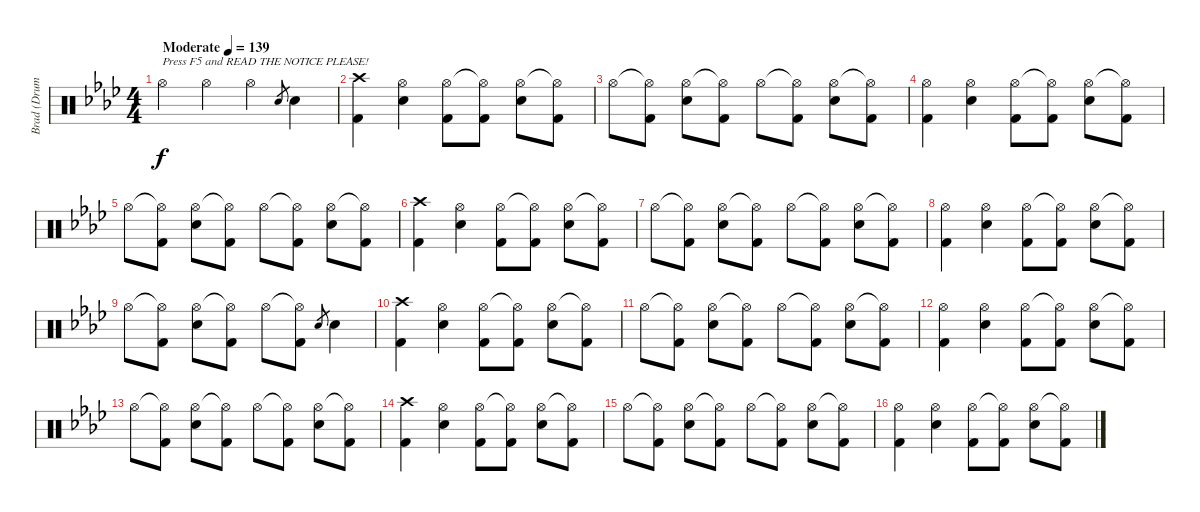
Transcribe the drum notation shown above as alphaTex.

\track ("Brad (Drums)" "Brad (Drum") {instrument percussion}
\staff {score}
\articulation defaults
\ts (4 4)
\tempo (139 "Moderate")
\clef neutral
\ks ab "Hi-Hat (open)".4{txt "Press F5 and READ THE NOTICE PLEASE!" dy f} "Hi-Hat (open)".4 "Hi-Hat (open)".4 "Snare (hit) 2".8{gr} "Snare (hit) 2".4
|
("Crash high (hit)" "Kick (hit) 2").4 ("Hi-Hat (open)" "Snare (hit) 2").4 ("Hi-Hat (open)" "Kick (hit) 2").8 ("Hi-Hat (open)"{t} "Kick (hit) 2").8 ("Hi-Hat (open)" "Snare (hit) 2").8 ("Hi-Hat (open)"{t} "Kick (hit) 2").8 |
"Hi-Hat (open)".8 ("Hi-Hat (open)"{t} "Kick (hit) 2").8 ("Hi-Hat (open)" "Snare (hit) 2").8 ("Hi-Hat (open)"{t} "Kick (hit) 2").8 "Hi-Hat (open)".8 ("Hi-Hat (open)"{t} "Kick (hit) 2").8 ("Hi-Hat (open)" "Snare (hit) 2").8 ("Hi-Hat (open)"{t} "Kick (hit) 2").8 |
("Hi-Hat (open)" "Kick (hit) 2").4 ("Hi-Hat (open)" "Snare (hit) 2").4 ("Hi-Hat (open)" "Kick (hit) 2").8 ("Hi-Hat (open)"{t} "Kick (hit) 2").8 ("Hi-Hat (open)" "Snare (hit) 2").8 ("Hi-Hat (open)"{t} "Kick (hit) 2").8 |
"Hi-Hat (open)".8 ("Hi-Hat (open)"{t} "Kick (hit) 2").8 ("Hi-Hat (open)" "Snare (hit) 2").8 ("Hi-Hat (open)"{t} "Kick (hit) 2").8 "Hi-Hat (open)".8 ("Hi-Hat (open)"{t} "Kick (hit) 2").8 ("Hi-Hat (open)" "Snare (hit) 2").8 ("Hi-Hat (open)"{t} "Kick (hit) 2").8 |
("Crash high (hit)" "Kick (hit) 2").4 ("Hi-Hat (open)" "Snare (hit) 2").4 ("Hi-Hat (open)" "Kick (hit) 2").8 ("Hi-Hat (open)"{t} "Kick (hit) 2").8 ("Hi-Hat (open)" "Snare (hit) 2").8 ("Hi-Hat (open)"{t} "Kick (hit) 2").8 |
"Hi-Hat (open)".8 ("Hi-Hat (open)"{t} "Kick (hit) 2").8 ("Hi-Hat (open)" "Snare (hit) 2").8 ("Hi-Hat (open)"{t} "Kick (hit) 2").8 "Hi-Hat (open)".8 ("Hi-Hat (open)"{t} "Kick (hit) 2").8 ("Hi-Hat (open)" "Snare (hit) 2").8 ("Hi-Hat (open)"{t} "Kick (hit) 2").8 |
("Hi-Hat (open)" "Kick (hit) 2").4 ("Hi-Hat (open)" "Snare (hit) 2").4 ("Hi-Hat (open)" "Kick (hit) 2").8 ("Hi-Hat (open)"{t} "Kick (hit) 2").8 ("Hi-Hat (open)" "Snare (hit) 2").8 ("Hi-Hat (open)"{t} "Kick (hit) 2").8 |
"Hi-Hat (open)".8 ("Hi-Hat (open)"{t} "Kick (hit) 2").8 ("Hi-Hat (open)" "Snare (hit) 2").8 ("Hi-Hat (open)"{t} "Kick (hit) 2").8 "Hi-Hat (open)".8 ("Hi-Hat (open)"{t} "Kick (hit) 2").8 "Snare (hit) 2".8{gr} "Snare (hit) 2".4 |
("Crash high (hit)" "Kick (hit) 2").4 ("Hi-Hat (open)" "Snare (hit) 2").4 ("Hi-Hat (open)" "Kick (hit) 2").8 ("Hi-Hat (open)"{t} "Kick (hit) 2").8 ("Hi-Hat (open)" "Snare (hit) 2").8 ("Hi-Hat (open)"{t} "Kick (hit) 2").8 |
"Hi-Hat (open)".8 ("Hi-Hat (open)"{t} "Kick (hit) 2").8 ("Hi-Hat (open)" "Snare (hit) 2").8 ("Hi-Hat (open)"{t} "Kick (hit) 2").8 "Hi-Hat (open)".8 ("Hi-Hat (open)"{t} "Kick (hit) 2").8 ("Hi-Hat (open)" "Snare (hit) 2").8 ("Hi-Hat (open)"{t} "Kick (hit) 2").8 |
("Hi-Hat (open)" "Kick (hit) 2").4 ("Hi-Hat (open)" "Snare (hit) 2").4 ("Hi-Hat (open)" "Kick (hit) 2").8 ("Hi-Hat (open)"{t} "Kick (hit) 2").8 ("Hi-Hat (open)" "Snare (hit) 2").8 ("Hi-Hat (open)"{t} "Kick (hit) 2").8 |
"Hi-Hat (open)".8 ("Hi-Hat (open)"{t} "Kick (hit) 2").8 ("Hi-Hat (open)" "Snare (hit) 2").8 ("Hi-Hat (open)"{t} "Kick (hit) 2").8 "Hi-Hat (open)".8 ("Hi-Hat (open)"{t} "Kick (hit) 2").8 ("Hi-Hat (open)" "Snare (hit) 2").8 ("Hi-Hat (open)"{t} "Kick (hit) 2").8 |
("Crash high (hit)" "Kick (hit) 2").4 ("Hi-Hat (open)" "Snare (hit) 2").4 ("Hi-Hat (open)" "Kick (hit) 2").8 ("Hi-Hat (open)"{t} "Kick (hit) 2").8 ("Hi-Hat (open)" "Snare (hit) 2").8 ("Hi-Hat (open)"{t} "Kick (hit) 2").8 |
"Hi-Hat (open)".8 ("Hi-Hat (open)"{t} "Kick (hit) 2").8 ("Hi-Hat (open)" "Snare (hit) 2").8 ("Hi-Hat (open)"{t} "Kick (hit) 2").8 "Hi-Hat (open)".8 ("Hi-Hat (open)"{t} "Kick (hit) 2").8 ("Hi-Hat (open)" "Snare (hit) 2").8 ("Hi-Hat (open)"{t} "Kick (hit) 2").8 |
("Hi-Hat (open)" "Kick (hit) 2").4 ("Hi-Hat (open)" "Snare (hit) 2").4 ("Hi-Hat (open)" "Kick (hit) 2").8 ("Hi-Hat (open)"{t} "Kick (hit) 2").8 ("Hi-Hat (open)" "Snare (hit) 2").8 ("Hi-Hat (open)"{t} "Kick (hit) 2").8
